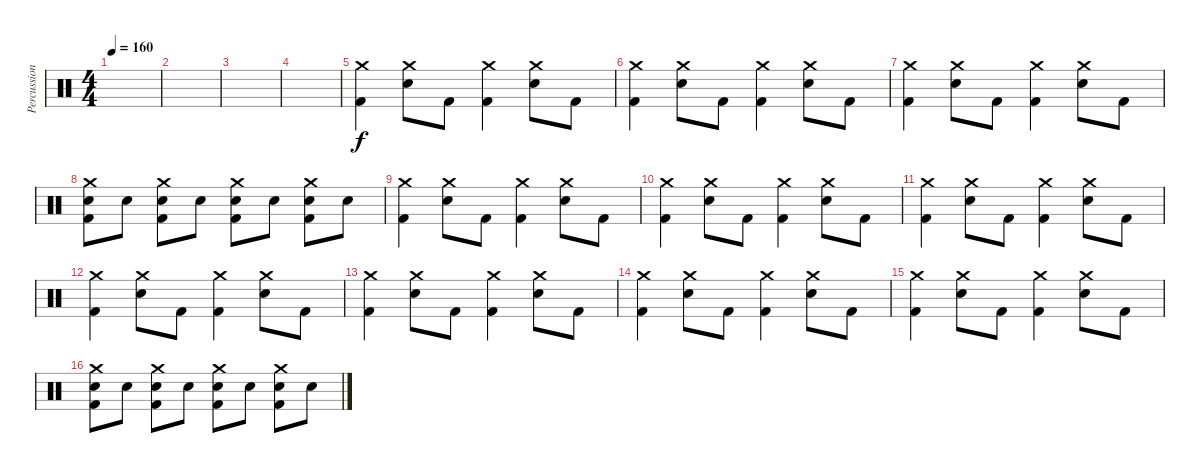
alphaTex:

\track ("Percussions" "Percussion") {instrument percussion}
\staff {score}
\articulation defaults
\ts (4 4)
\tempo 160
\clef neutral
\ks c
|
|
|
|
("Crash medium (hit)" "Kick (hit) 2").4 ("Crash medium (hit)" "Snare (hit) 2").8 "Kick (hit) 2".8 ("Crash medium (hit)" "Kick (hit) 2").4 ("Crash medium (hit)" "Snare (hit) 2").8 "Kick (hit) 2".8 |
("Crash medium (hit)" "Kick (hit) 2").4 ("Crash medium (hit)" "Snare (hit) 2").8 "Kick (hit) 2".8 ("Crash medium (hit)" "Kick (hit) 2").4 ("Crash medium (hit)" "Snare (hit) 2").8 "Kick (hit) 2".8 |
("Crash medium (hit)" "Kick (hit) 2").4 ("Crash medium (hit)" "Snare (hit) 2").8 "Kick (hit) 2".8 ("Crash medium (hit)" "Kick (hit) 2").4 ("Crash medium (hit)" "Snare (hit) 2").8 "Kick (hit) 2".8 |
("Crash medium (hit)" "Snare (hit) 2" "Kick (hit) 2").8 "Snare (hit) 2".8 ("Crash medium (hit)" "Snare (hit) 2" "Kick (hit) 2").8 "Snare (hit) 2".8 ("Crash medium (hit)" "Snare (hit) 2" "Kick (hit) 2").8 "Snare (hit) 2".8 ("Crash medium (hit)" "Snare (hit) 2" "Kick (hit) 2").8 "Snare (hit) 2".8 |
("Crash medium (hit)" "Kick (hit) 2").4 ("Crash medium (hit)" "Snare (hit) 2").8 "Kick (hit) 2".8 ("Crash medium (hit)" "Kick (hit) 2").4 ("Crash medium (hit)" "Snare (hit) 2").8 "Kick (hit) 2".8 |
("Crash medium (hit)" "Kick (hit) 2").4 ("Crash medium (hit)" "Snare (hit) 2").8 "Kick (hit) 2".8 ("Crash medium (hit)" "Kick (hit) 2").4 ("Crash medium (hit)" "Snare (hit) 2").8 "Kick (hit) 2".8 |
("Crash medium (hit)" "Kick (hit) 2").4 ("Crash medium (hit)" "Snare (hit) 2").8 "Kick (hit) 2".8 ("Crash medium (hit)" "Kick (hit) 2").4 ("Crash medium (hit)" "Snare (hit) 2").8 "Kick (hit) 2".8 |
("Crash medium (hit)" "Kick (hit) 2").4 ("Crash medium (hit)" "Snare (hit) 2").8 "Kick (hit) 2".8 ("Crash medium (hit)" "Kick (hit) 2").4 ("Crash medium (hit)" "Snare (hit) 2").8 "Kick (hit) 2".8 |
("Crash medium (hit)" "Kick (hit) 2").4 ("Crash medium (hit)" "Snare (hit) 2").8 "Kick (hit) 2".8 ("Crash medium (hit)" "Kick (hit) 2").4 ("Crash medium (hit)" "Snare (hit) 2").8 "Kick (hit) 2".8 |
("Crash medium (hit)" "Kick (hit) 2").4 ("Crash medium (hit)" "Snare (hit) 2").8 "Kick (hit) 2".8 ("Crash medium (hit)" "Kick (hit) 2").4 ("Crash medium (hit)" "Snare (hit) 2").8 "Kick (hit) 2".8 |
("Crash medium (hit)" "Kick (hit) 2").4 ("Crash medium (hit)" "Snare (hit) 2").8 "Kick (hit) 2".8 ("Crash medium (hit)" "Kick (hit) 2").4 ("Crash medium (hit)" "Snare (hit) 2").8 "Kick (hit) 2".8 |
("Crash medium (hit)" "Snare (hit) 2" "Kick (hit) 2").8 "Snare (hit) 2".8 ("Crash medium (hit)" "Snare (hit) 2" "Kick (hit) 2").8 "Snare (hit) 2".8 ("Crash medium (hit)" "Snare (hit) 2" "Kick (hit) 2").8 "Snare (hit) 2".8 ("Crash medium (hit)" "Snare (hit) 2" "Kick (hit) 2").8 "Snare (hit) 2".8
